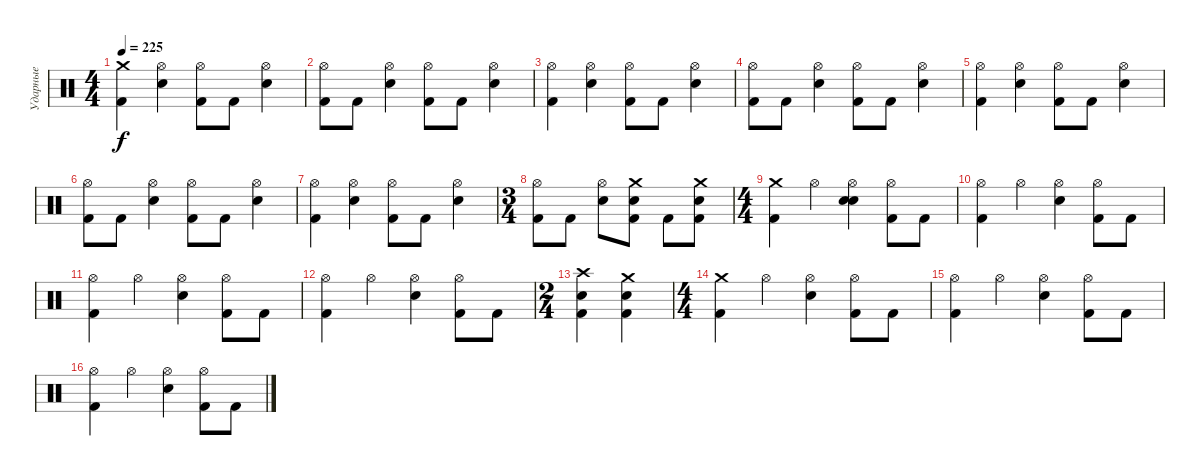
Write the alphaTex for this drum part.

\track ("Ударные" "Ударные") {instrument percussion}
\staff {score}
\articulation defaults
\ts (4 4)
\tempo 225
\clef neutral
\ks c
("Crash medium (hit)" "Kick (hit) 2").4{dy f} ("Hi-Hat (open)" "Snare (hit) 2").4 ("Hi-Hat (open)" "Kick (hit) 2").8 "Kick (hit) 2".8 ("Hi-Hat (open)" "Snare (hit) 2").4 |
("Hi-Hat (open)" "Kick (hit) 2").8 "Kick (hit) 2".8 ("Hi-Hat (open)" "Snare (hit) 2").4 ("Hi-Hat (open)" "Kick (hit) 2").8 "Kick (hit) 2".8 ("Hi-Hat (open)" "Snare (hit) 2").4 |
("Hi-Hat (open)" "Kick (hit) 2").4 ("Hi-Hat (open)" "Snare (hit) 2").4 ("Hi-Hat (open)" "Kick (hit) 2").8 "Kick (hit) 2".8 ("Hi-Hat (open)" "Snare (hit) 2").4 |
("Hi-Hat (open)" "Kick (hit) 2").8 "Kick (hit) 2".8 ("Hi-Hat (open)" "Snare (hit) 2").4 ("Hi-Hat (open)" "Kick (hit) 2").8 "Kick (hit) 2".8 ("Hi-Hat (open)" "Snare (hit) 2").4 |
("Hi-Hat (open)" "Kick (hit) 2").4 ("Hi-Hat (open)" "Snare (hit) 2").4 ("Hi-Hat (open)" "Kick (hit) 2").8 "Kick (hit) 2".8 ("Hi-Hat (open)" "Snare (hit) 2").4 |
("Hi-Hat (open)" "Kick (hit) 2").8 "Kick (hit) 2".8 ("Hi-Hat (open)" "Snare (hit) 2").4 ("Hi-Hat (open)" "Kick (hit) 2").8 "Kick (hit) 2".8 ("Hi-Hat (open)" "Snare (hit) 2").4 |
("Hi-Hat (open)" "Kick (hit) 2").4 ("Hi-Hat (open)" "Snare (hit) 2").4 ("Hi-Hat (open)" "Kick (hit) 2").8 "Kick (hit) 2".8 ("Hi-Hat (open)" "Snare (hit) 2").4 |
\ts (3 4)
("Hi-Hat (open)" "Kick (hit) 2").8 "Kick (hit) 2".8 ("Hi-Hat (open)" "Snare (hit) 2").8 ("Crash medium (hit)" "Snare (hit) 2" "Kick (hit) 2").8 "Kick (hit) 2".8 ("Crash medium (hit)" "Snare (hit) 2" "Kick (hit) 2").8 |
\ts (4 4)
("Crash medium (hit)" "Kick (hit) 2").4 "Hi-Hat (open)".4 ("Hi-Hat (open)" "Snare (hit) 2" "Snare (hit)").4 ("Hi-Hat (open)" "Kick (hit) 2").8 "Kick (hit) 2".8 |
("Hi-Hat (open)" "Kick (hit) 2").4 "Hi-Hat (open)".4 ("Hi-Hat (open)" "Snare (hit) 2").4 ("Hi-Hat (open)" "Kick (hit) 2").8 "Kick (hit) 2".8 |
("Hi-Hat (open)" "Kick (hit) 2").4 "Hi-Hat (open)".4 ("Hi-Hat (open)" "Snare (hit) 2").4 ("Hi-Hat (open)" "Kick (hit) 2").8 "Kick (hit) 2".8 |
("Hi-Hat (open)" "Kick (hit) 2").4 "Hi-Hat (open)".4 ("Hi-Hat (open)" "Snare (hit) 2").4 ("Hi-Hat (open)" "Kick (hit) 2").8 "Kick (hit) 2".8 |
\ts (2 4)
("Crash high (hit)" "Snare (hit) 2" "Kick (hit) 2").4 ("Crash medium (hit)" "Snare (hit) 2" "Kick (hit) 2").4 |
\ts (4 4)
("Crash medium (hit)" "Kick (hit) 2").4 "Hi-Hat (open)".4 ("Hi-Hat (open)" "Snare (hit) 2").4 ("Hi-Hat (open)" "Kick (hit) 2").8 "Kick (hit) 2".8 |
("Hi-Hat (open)" "Kick (hit) 2").4 "Hi-Hat (open)".4 ("Hi-Hat (open)" "Snare (hit) 2").4 ("Hi-Hat (open)" "Kick (hit) 2").8 "Kick (hit) 2".8 |
("Hi-Hat (open)" "Kick (hit) 2").4 "Hi-Hat (open)".4 ("Hi-Hat (open)" "Snare (hit) 2").4 ("Hi-Hat (open)" "Kick (hit) 2").8 "Kick (hit) 2".8
